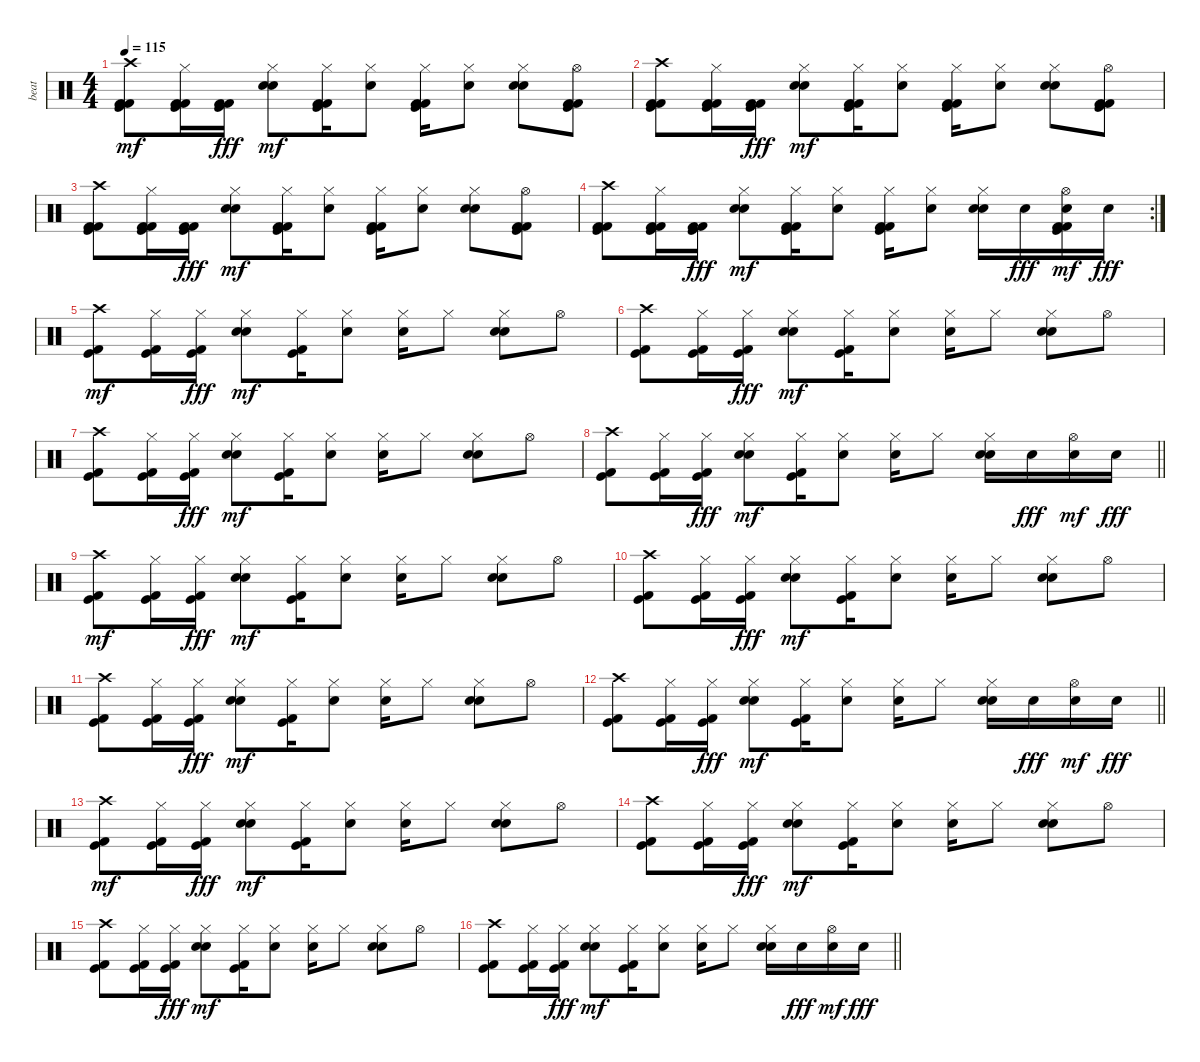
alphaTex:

\track ("beat" "beat") {instrument percussion}
\staff {score}
\articulation defaults
\ts (4 4)
\tempo 115
\clef neutral
\ks c
("Kick (hit)" "Kick (hit) 2" "Kick (hit) 2" "Crash high (hit)").8{dy mf} ("Kick (hit)" "Kick (hit) 2" "Kick (hit) 2" "Hi-Hat (closed)").16 ("Kick (hit)" "Kick (hit) 2" "Kick (hit) 2").16{dy fff} ("Snare (hit) 2" "Electric Snare (hit)" "Hi-Hat (closed)").8{dy mf} ("Kick (hit)" "Kick (hit) 2" "Kick (hit) 2" "Hi-Hat (closed)").16 ("Electric Snare (hit)" "Hi-Hat (closed)").8 ("Kick (hit)" "Kick (hit) 2" "Kick (hit) 2" "Hi-Hat (closed)").16 ("Electric Snare (hit)" "Hi-Hat (closed)").8 ("Snare (hit) 2" "Electric Snare (hit)" "Hi-Hat (closed)").8 ("Kick (hit)" "Kick (hit) 2" "Kick (hit) 2" "Hi-Hat (open)").8 |
("Kick (hit)" "Kick (hit) 2" "Kick (hit) 2" "Crash high (hit)").8 ("Kick (hit)" "Kick (hit) 2" "Kick (hit) 2" "Hi-Hat (closed)").16 ("Kick (hit)" "Kick (hit) 2" "Kick (hit) 2").16{dy fff} ("Snare (hit) 2" "Electric Snare (hit)" "Hi-Hat (closed)").8{dy mf} ("Kick (hit)" "Kick (hit) 2" "Kick (hit) 2" "Hi-Hat (closed)").16 ("Electric Snare (hit)" "Hi-Hat (closed)").8 ("Kick (hit)" "Kick (hit) 2" "Kick (hit) 2" "Hi-Hat (closed)").16 ("Electric Snare (hit)" "Hi-Hat (closed)").8 ("Snare (hit) 2" "Electric Snare (hit)" "Hi-Hat (closed)").8 ("Kick (hit)" "Kick (hit) 2" "Kick (hit) 2" "Hi-Hat (open)").8 |
("Kick (hit)" "Kick (hit) 2" "Kick (hit) 2" "Crash high (hit)").8 ("Kick (hit)" "Kick (hit) 2" "Kick (hit) 2" "Hi-Hat (closed)").16 ("Kick (hit)" "Kick (hit) 2" "Kick (hit) 2").16{dy fff} ("Snare (hit) 2" "Electric Snare (hit)" "Hi-Hat (closed)").8{dy mf} ("Kick (hit)" "Kick (hit) 2" "Kick (hit) 2" "Hi-Hat (closed)").16 ("Electric Snare (hit)" "Hi-Hat (closed)").8 ("Kick (hit)" "Kick (hit) 2" "Kick (hit) 2" "Hi-Hat (closed)").16 ("Electric Snare (hit)" "Hi-Hat (closed)").8 ("Snare (hit) 2" "Electric Snare (hit)" "Hi-Hat (closed)").8 ("Kick (hit)" "Kick (hit) 2" "Kick (hit) 2" "Hi-Hat (open)").8 |
\rc 2
("Kick (hit)" "Kick (hit) 2" "Kick (hit) 2" "Crash high (hit)").8 ("Kick (hit)" "Kick (hit) 2" "Kick (hit) 2" "Hi-Hat (closed)").16 ("Kick (hit)" "Kick (hit) 2" "Kick (hit) 2").16{dy fff} ("Snare (hit) 2" "Electric Snare (hit)" "Hi-Hat (closed)").8{dy mf} ("Kick (hit)" "Kick (hit) 2" "Kick (hit) 2" "Hi-Hat (closed)").16 ("Electric Snare (hit)" "Hi-Hat (closed)").8 ("Kick (hit)" "Kick (hit) 2" "Kick (hit) 2" "Hi-Hat (closed)").16 ("Electric Snare (hit)" "Hi-Hat (closed)").8 ("Snare (hit) 2" "Electric Snare (hit)" "Hi-Hat (closed)").16 "Electric Snare (hit)".16{dy fff} ("Kick (hit)" "Kick (hit) 2" "Kick (hit) 2" "Electric Snare (hit)" "Hi-Hat (open)").16{dy mf} "Electric Snare (hit)".16{dy fff} |
("Kick (hit)" "Kick (hit) 2" "Crash high (hit)").8{dy mf} ("Kick (hit)" "Kick (hit) 2" "Hi-Hat (closed)").16 ("Kick (hit)" "Kick (hit) 2" "Hi-Hat (closed)").16{dy fff} ("Snare (hit) 2" "Electric Snare (hit)" "Hi-Hat (closed)").8{dy mf} ("Kick (hit)" "Kick (hit) 2" "Hi-Hat (closed)").16 ("Electric Snare (hit)" "Hi-Hat (closed)").8 ("Electric Snare (hit)" "Hi-Hat (closed)").16 "Hi-Hat (closed)".8 ("Snare (hit) 2" "Electric Snare (hit)" "Hi-Hat (closed)").8 "Hi-Hat (open)".8 |
("Kick (hit)" "Kick (hit) 2" "Crash high (hit)").8 ("Kick (hit)" "Kick (hit) 2" "Hi-Hat (closed)").16 ("Kick (hit)" "Kick (hit) 2" "Hi-Hat (closed)").16{dy fff} ("Snare (hit) 2" "Electric Snare (hit)" "Hi-Hat (closed)").8{dy mf} ("Kick (hit)" "Kick (hit) 2" "Hi-Hat (closed)").16 ("Electric Snare (hit)" "Hi-Hat (closed)").8 ("Electric Snare (hit)" "Hi-Hat (closed)").16 "Hi-Hat (closed)".8 ("Snare (hit) 2" "Electric Snare (hit)" "Hi-Hat (closed)").8 "Hi-Hat (open)".8 |
("Kick (hit)" "Kick (hit) 2" "Crash high (hit)").8 ("Kick (hit)" "Kick (hit) 2" "Hi-Hat (closed)").16 ("Kick (hit)" "Kick (hit) 2" "Hi-Hat (closed)").16{dy fff} ("Snare (hit) 2" "Electric Snare (hit)" "Hi-Hat (closed)").8{dy mf} ("Kick (hit)" "Kick (hit) 2" "Hi-Hat (closed)").16 ("Electric Snare (hit)" "Hi-Hat (closed)").8 ("Electric Snare (hit)" "Hi-Hat (closed)").16 "Hi-Hat (closed)".8 ("Snare (hit) 2" "Electric Snare (hit)" "Hi-Hat (closed)").8 "Hi-Hat (open)".8 |
\barLineRight lightlight
("Kick (hit)" "Kick (hit) 2" "Crash high (hit)").8 ("Kick (hit)" "Kick (hit) 2" "Hi-Hat (closed)").16 ("Kick (hit)" "Kick (hit) 2" "Hi-Hat (closed)").16{dy fff} ("Snare (hit) 2" "Electric Snare (hit)" "Hi-Hat (closed)").8{dy mf} ("Kick (hit)" "Kick (hit) 2" "Hi-Hat (closed)").16 ("Electric Snare (hit)" "Hi-Hat (closed)").8 ("Electric Snare (hit)" "Hi-Hat (closed)").16 "Hi-Hat (closed)".8 ("Snare (hit) 2" "Electric Snare (hit)" "Hi-Hat (closed)").16 "Electric Snare (hit)".16{dy fff} ("Electric Snare (hit)" "Hi-Hat (open)").16{dy mf} "Electric Snare (hit)".16{dy fff} |
("Kick (hit)" "Kick (hit) 2" "Crash high (hit)").8{dy mf volume 9} ("Kick (hit)" "Kick (hit) 2" "Hi-Hat (closed)").16 ("Kick (hit)" "Kick (hit) 2" "Hi-Hat (closed)").16{dy fff} ("Snare (hit) 2" "Electric Snare (hit)" "Hi-Hat (closed)").8{dy mf} ("Kick (hit)" "Kick (hit) 2" "Hi-Hat (closed)").16 ("Electric Snare (hit)" "Hi-Hat (closed)").8 ("Electric Snare (hit)" "Hi-Hat (closed)").16 "Hi-Hat (closed)".8 ("Snare (hit) 2" "Electric Snare (hit)" "Hi-Hat (closed)").8 "Hi-Hat (open)".8 |
("Kick (hit)" "Kick (hit) 2" "Crash high (hit)").8 ("Kick (hit)" "Kick (hit) 2" "Hi-Hat (closed)").16 ("Kick (hit)" "Kick (hit) 2" "Hi-Hat (closed)").16{dy fff} ("Snare (hit) 2" "Electric Snare (hit)" "Hi-Hat (closed)").8{dy mf} ("Kick (hit)" "Kick (hit) 2" "Hi-Hat (closed)").16 ("Electric Snare (hit)" "Hi-Hat (closed)").8 ("Electric Snare (hit)" "Hi-Hat (closed)").16 "Hi-Hat (closed)".8 ("Snare (hit) 2" "Electric Snare (hit)" "Hi-Hat (closed)").8 "Hi-Hat (open)".8 |
("Kick (hit)" "Kick (hit) 2" "Crash high (hit)").8 ("Kick (hit)" "Kick (hit) 2" "Hi-Hat (closed)").16 ("Kick (hit)" "Kick (hit) 2" "Hi-Hat (closed)").16{dy fff} ("Snare (hit) 2" "Electric Snare (hit)" "Hi-Hat (closed)").8{dy mf} ("Kick (hit)" "Kick (hit) 2" "Hi-Hat (closed)").16 ("Electric Snare (hit)" "Hi-Hat (closed)").8 ("Electric Snare (hit)" "Hi-Hat (closed)").16 "Hi-Hat (closed)".8 ("Snare (hit) 2" "Electric Snare (hit)" "Hi-Hat (closed)").8 "Hi-Hat (open)".8 |
\barLineRight lightlight
("Kick (hit)" "Kick (hit) 2" "Crash high (hit)").8 ("Kick (hit)" "Kick (hit) 2" "Hi-Hat (closed)").16 ("Kick (hit)" "Kick (hit) 2" "Hi-Hat (closed)").16{dy fff} ("Snare (hit) 2" "Electric Snare (hit)" "Hi-Hat (closed)").8{dy mf} ("Kick (hit)" "Kick (hit) 2" "Hi-Hat (closed)").16 ("Electric Snare (hit)" "Hi-Hat (closed)").8 ("Electric Snare (hit)" "Hi-Hat (closed)").16 "Hi-Hat (closed)".8 ("Snare (hit) 2" "Electric Snare (hit)" "Hi-Hat (closed)").16 "Electric Snare (hit)".16{dy fff} ("Electric Snare (hit)" "Hi-Hat (open)").16{dy mf} "Electric Snare (hit)".16{dy fff} |
("Kick (hit)" "Kick (hit) 2" "Crash high (hit)").8{dy mf volume 6} ("Kick (hit)" "Kick (hit) 2" "Hi-Hat (closed)").16 ("Kick (hit)" "Kick (hit) 2" "Hi-Hat (closed)").16{dy fff} ("Snare (hit) 2" "Electric Snare (hit)" "Hi-Hat (closed)").8{dy mf} ("Kick (hit)" "Kick (hit) 2" "Hi-Hat (closed)").16 ("Electric Snare (hit)" "Hi-Hat (closed)").8 ("Electric Snare (hit)" "Hi-Hat (closed)").16 "Hi-Hat (closed)".8 ("Snare (hit) 2" "Electric Snare (hit)" "Hi-Hat (closed)").8 "Hi-Hat (open)".8 |
("Kick (hit)" "Kick (hit) 2" "Crash high (hit)").8 ("Kick (hit)" "Kick (hit) 2" "Hi-Hat (closed)").16 ("Kick (hit)" "Kick (hit) 2" "Hi-Hat (closed)").16{dy fff} ("Snare (hit) 2" "Electric Snare (hit)" "Hi-Hat (closed)").8{dy mf} ("Kick (hit)" "Kick (hit) 2" "Hi-Hat (closed)").16 ("Electric Snare (hit)" "Hi-Hat (closed)").8 ("Electric Snare (hit)" "Hi-Hat (closed)").16 "Hi-Hat (closed)".8 ("Snare (hit) 2" "Electric Snare (hit)" "Hi-Hat (closed)").8 "Hi-Hat (open)".8 |
("Kick (hit)" "Kick (hit) 2" "Crash high (hit)").8 ("Kick (hit)" "Kick (hit) 2" "Hi-Hat (closed)").16 ("Kick (hit)" "Kick (hit) 2" "Hi-Hat (closed)").16{dy fff} ("Snare (hit) 2" "Electric Snare (hit)" "Hi-Hat (closed)").8{dy mf} ("Kick (hit)" "Kick (hit) 2" "Hi-Hat (closed)").16 ("Electric Snare (hit)" "Hi-Hat (closed)").8 ("Electric Snare (hit)" "Hi-Hat (closed)").16 "Hi-Hat (closed)".8 ("Snare (hit) 2" "Electric Snare (hit)" "Hi-Hat (closed)").8 "Hi-Hat (open)".8 |
\barLineRight lightlight
("Kick (hit)" "Kick (hit) 2" "Crash high (hit)").8 ("Kick (hit)" "Kick (hit) 2" "Hi-Hat (closed)").16 ("Kick (hit)" "Kick (hit) 2" "Hi-Hat (closed)").16{dy fff} ("Snare (hit) 2" "Electric Snare (hit)" "Hi-Hat (closed)").8{dy mf} ("Kick (hit)" "Kick (hit) 2" "Hi-Hat (closed)").16 ("Electric Snare (hit)" "Hi-Hat (closed)").8 ("Electric Snare (hit)" "Hi-Hat (closed)").16 "Hi-Hat (closed)".8 ("Snare (hit) 2" "Electric Snare (hit)" "Hi-Hat (closed)").16 "Electric Snare (hit)".16{dy fff} ("Electric Snare (hit)" "Hi-Hat (open)").16{dy mf} "Electric Snare (hit)".16{dy fff}
